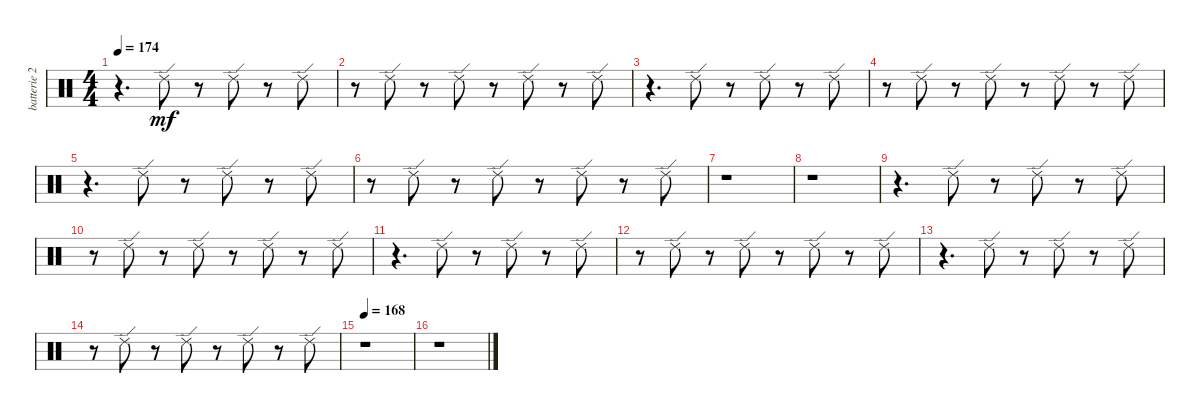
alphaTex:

\track ("batterie 2" "batterie 2") {instrument percussion}
\staff {score}
\articulation defaults
\ts (4 4)
\tempo 174
\clef neutral
\ks c
r.4{d dy mf} "Ride (edge) 2".8 r.8 "Ride (edge) 2".8 r.8 "Ride (edge) 2".8 |
r.8 "Ride (edge) 2".8 r.8 "Ride (edge) 2".8 r.8 "Ride (edge) 2".8 r.8 "Ride (edge) 2".8 |
r.4{d} "Ride (edge) 2".8 r.8 "Ride (edge) 2".8 r.8 "Ride (edge) 2".8 |
r.8 "Ride (edge) 2".8 r.8 "Ride (edge) 2".8 r.8 "Ride (edge) 2".8 r.8 "Ride (edge) 2".8 |
r.4{d} "Ride (edge) 2".8 r.8 "Ride (edge) 2".8 r.8 "Ride (edge) 2".8 |
r.8 "Ride (edge) 2".8 r.8 "Ride (edge) 2".8 r.8 "Ride (edge) 2".8 r.8 "Ride (edge) 2".8 |
r.1 |
r.1 |
r.4{d} "Ride (edge) 2".8 r.8 "Ride (edge) 2".8 r.8 "Ride (edge) 2".8 |
r.8 "Ride (edge) 2".8 r.8 "Ride (edge) 2".8 r.8 "Ride (edge) 2".8 r.8 "Ride (edge) 2".8 |
r.4{d} "Ride (edge) 2".8 r.8 "Ride (edge) 2".8 r.8 "Ride (edge) 2".8 |
r.8 "Ride (edge) 2".8 r.8 "Ride (edge) 2".8 r.8 "Ride (edge) 2".8 r.8 "Ride (edge) 2".8 |
r.4{d} "Ride (edge) 2".8 r.8 "Ride (edge) 2".8 r.8 "Ride (edge) 2".8 |
r.8 "Ride (edge) 2".8 r.8 "Ride (edge) 2".8 r.8 "Ride (edge) 2".8 r.8 "Ride (edge) 2".8 |
\tempo 168
r.1 |
r.1
